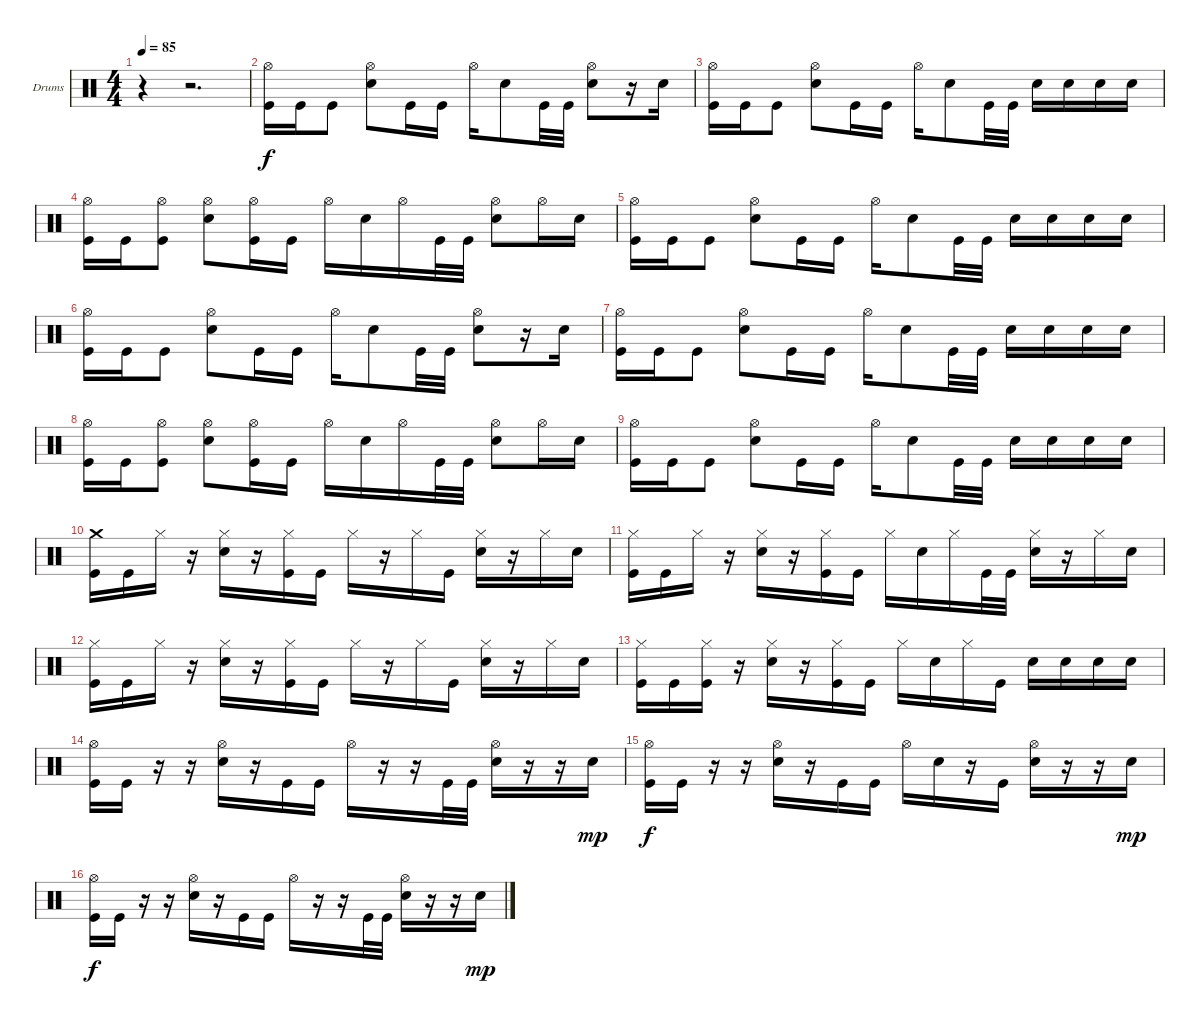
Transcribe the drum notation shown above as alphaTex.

\defaultSystemsLayout 4
\bracketExtendMode groupsimilarinstruments
\firstSystemTrackNameOrientation horizontal
\otherSystemsTrackNameOrientation horizontal
\track ("Drumkit" "Drums") {instrument percussion}
\staff {score}
\articulation defaults
\ts (4 4)
\tempo 85
\clef neutral
\scale
0.472222
\ks c
r.4{dy f} r.2{d} |
\scale
0.263889 ("Hi-Hat (open)" "Kick (hit)").16 "Kick (hit)".16 "Kick (hit)".8 ("Hi-Hat (open)" "Snare (hit) 2").8 "Kick (hit)".16 "Kick (hit)".16 "Hi-Hat (open)".16 "Snare (hit) 2".8 "Kick (hit)".32 "Kick (hit)".32 ("Hi-Hat (open)" "Snare (hit) 2").8 r.16 "Snare (hit) 2".16 |
\scale
0.263889 ("Hi-Hat (open)" "Kick (hit)").16 "Kick (hit)".16 "Kick (hit)".8 ("Hi-Hat (open)" "Snare (hit) 2").8 "Kick (hit)".16 "Kick (hit)".16 "Hi-Hat (open)".16 "Snare (hit) 2".8 "Kick (hit)".32 "Kick (hit)".32 "Snare (hit) 2".16 "Snare (hit) 2".16 "Snare (hit) 2".16 "Snare (hit) 2".16 |
\scale
0.333333 ("Hi-Hat (open)" "Kick (hit)").16 "Kick (hit)".16 ("Hi-Hat (open)" "Kick (hit)").8 ("Hi-Hat (open)" "Snare (hit) 2").8 ("Hi-Hat (open)" "Kick (hit)").16 "Kick (hit)".16 "Hi-Hat (open)".16 "Snare (hit) 2".16 "Hi-Hat (open)".16 "Kick (hit)".32 "Kick (hit)".32 ("Hi-Hat (open)" "Snare (hit) 2").8 "Hi-Hat (open)".16 "Snare (hit) 2".16 |
\scale
0.333333 ("Hi-Hat (open)" "Kick (hit)").16 "Kick (hit)".16 "Kick (hit)".8 ("Hi-Hat (open)" "Snare (hit) 2").8 "Kick (hit)".16 "Kick (hit)".16 "Hi-Hat (open)".16 "Snare (hit) 2".8 "Kick (hit)".32 "Kick (hit)".32 "Snare (hit) 2".16 "Snare (hit) 2".16 "Snare (hit) 2".16 "Snare (hit) 2".16 |
\scale
0.333333 ("Hi-Hat (open)" "Kick (hit)").16 "Kick (hit)".16 "Kick (hit)".8 ("Hi-Hat (open)" "Snare (hit) 2").8 "Kick (hit)".16 "Kick (hit)".16 "Hi-Hat (open)".16 "Snare (hit) 2".8 "Kick (hit)".32 "Kick (hit)".32 ("Hi-Hat (open)" "Snare (hit) 2").8 r.16 "Snare (hit) 2".16 |
\scale
0.333333 ("Hi-Hat (open)" "Kick (hit)").16 "Kick (hit)".16 "Kick (hit)".8 ("Hi-Hat (open)" "Snare (hit) 2").8 "Kick (hit)".16 "Kick (hit)".16 "Hi-Hat (open)".16 "Snare (hit) 2".8 "Kick (hit)".32 "Kick (hit)".32 "Snare (hit) 2".16 "Snare (hit) 2".16 "Snare (hit) 2".16 "Snare (hit) 2".16 |
\scale
0.333333 ("Hi-Hat (open)" "Kick (hit)").16 "Kick (hit)".16 ("Hi-Hat (open)" "Kick (hit)").8 ("Hi-Hat (open)" "Snare (hit) 2").8 ("Hi-Hat (open)" "Kick (hit)").16 "Kick (hit)".16 "Hi-Hat (open)".16 "Snare (hit) 2".16 "Hi-Hat (open)".16 "Kick (hit)".32 "Kick (hit)".32 ("Hi-Hat (open)" "Snare (hit) 2").8 "Hi-Hat (open)".16 "Snare (hit) 2".16 |
\scale
0.333333 ("Hi-Hat (open)" "Kick (hit)").16 "Kick (hit)".16 "Kick (hit)".8 ("Hi-Hat (open)" "Snare (hit) 2").8 "Kick (hit)".16 "Kick (hit)".16 "Hi-Hat (open)".16 "Snare (hit) 2".8 "Kick (hit)".32 "Kick (hit)".32 "Snare (hit) 2".16 "Snare (hit) 2".16 "Snare (hit) 2".16 "Snare (hit) 2".16 |
\scale
0.333333 ("Crash medium (hit)" "Kick (hit)").16 "Kick (hit)".16 "Hi-Hat (closed)".16 r.16 ("Hi-Hat (closed)" "Snare (hit) 2").16 r.16 ("Hi-Hat (closed)" "Kick (hit)").16 "Kick (hit)".16 "Hi-Hat (closed)".16 r.16 "Hi-Hat (closed)".16 "Kick (hit)".16 ("Hi-Hat (closed)" "Snare (hit) 2").16 r.16 "Hi-Hat (closed)".16 "Snare (hit) 2".16 |
\scale
0.333333 ("Hi-Hat (closed)" "Kick (hit)").16 "Kick (hit)".16 "Hi-Hat (closed)".16 r.16 ("Hi-Hat (closed)" "Snare (hit) 2").16 r.16 ("Hi-Hat (closed)" "Kick (hit)").16 "Kick (hit)".16 "Hi-Hat (closed)".16 "Snare (hit) 2".16 "Hi-Hat (closed)".16 "Kick (hit)".32 "Kick (hit)".32 ("Hi-Hat (closed)" "Snare (hit) 2").16 r.16 "Hi-Hat (closed)".16 "Snare (hit) 2".16 |
\scale
0.333333 ("Hi-Hat (closed)" "Kick (hit)").16 "Kick (hit)".16 "Hi-Hat (closed)".16 r.16 ("Hi-Hat (closed)" "Snare (hit) 2").16 r.16 ("Hi-Hat (closed)" "Kick (hit)").16 "Kick (hit)".16 "Hi-Hat (closed)".16 r.16 "Hi-Hat (closed)".16 "Kick (hit)".16 ("Hi-Hat (closed)" "Snare (hit) 2").16 r.16 "Hi-Hat (closed)".16 "Snare (hit) 2".16 |
\scale
0.333333 ("Hi-Hat (closed)" "Kick (hit)").16 "Kick (hit)".16 ("Hi-Hat (closed)" "Kick (hit)").16 r.16 ("Hi-Hat (closed)" "Snare (hit) 2").16 r.16 ("Hi-Hat (closed)" "Kick (hit)").16 "Kick (hit)".16 "Hi-Hat (closed)".16 "Snare (hit) 2".16 "Hi-Hat (closed)".16 "Kick (hit)".16 "Snare (hit) 2".16 "Snare (hit) 2".16 "Snare (hit) 2".16 "Snare (hit) 2".16 |
\scale
0.333333 ("Hi-Hat (open)" "Kick (hit)").16 "Kick (hit)".16 r.16 r.16 ("Hi-Hat (open)" "Snare (hit) 2").16 r.16 "Kick (hit)".16 "Kick (hit)".16 "Hi-Hat (open)".16 r.16 r.16 "Kick (hit)".32 "Kick (hit)".32 ("Hi-Hat (open)" "Snare (hit) 2").16 r.16 r.16 "Snare (hit) 2".16{dy mp} |
\scale
0.333333 ("Hi-Hat (open)" "Kick (hit)").16{dy f} "Kick (hit)".16 r.16 r.16 ("Hi-Hat (open)" "Snare (hit) 2").16 r.16 "Kick (hit)".16 "Kick (hit)".16 "Hi-Hat (open)".16 "Snare (hit) 2".16 r.16 "Kick (hit)".16 ("Hi-Hat (open)" "Snare (hit) 2").16 r.16 r.16 "Snare (hit) 2".16{dy mp} |
\scale
0.333333 ("Hi-Hat (open)" "Kick (hit)").16{dy f} "Kick (hit)".16 r.16 r.16 ("Hi-Hat (open)" "Snare (hit) 2").16 r.16 "Kick (hit)".16 "Kick (hit)".16 "Hi-Hat (open)".16 r.16 r.16 "Kick (hit)".32 "Kick (hit)".32 ("Hi-Hat (open)" "Snare (hit) 2").16 r.16 r.16 "Snare (hit) 2".16{dy mp}
